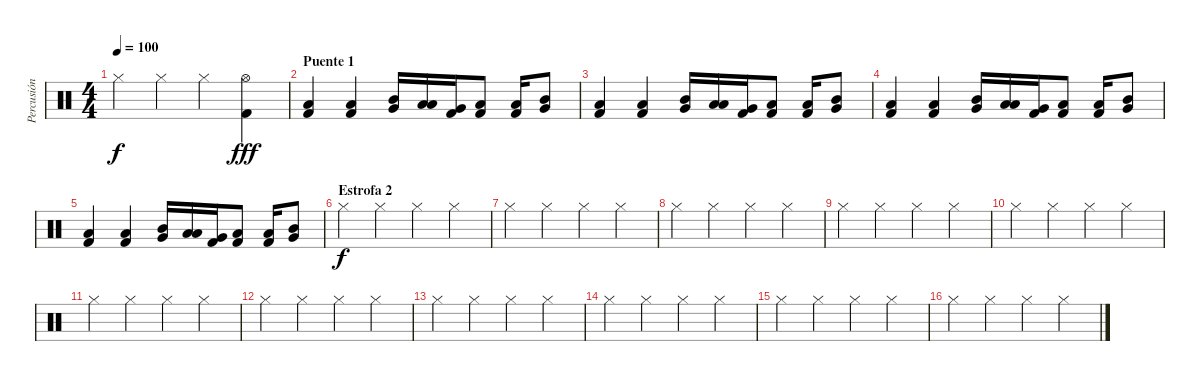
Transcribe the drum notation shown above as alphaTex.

\track ("Percusión" "Percusión") {instrument percussion}
\staff {score}
\articulation defaults
\ts (4 4)
\tempo 100
\clef neutral
\ks c "Hi-Hat (closed)".4{dy f} "Hi-Hat (closed)".4 "Hi-Hat (closed)".4
("Hi-Hat (open)" "Kick (hit) 2").4{dy fff} |
\section ("" "Puente 1")
("Kick (hit) 2" "Low Floor Tom (hit)").4 ("Kick (hit) 2" "Low Floor Tom (hit)").4 ("Mid Tom (hit)" "Very Low Tom (hit)").16{bd 480} ("Low Tom (hit)" "Low Floor Tom (hit)").16{bd 480} ("Very Low Tom (hit)" "Kick (hit) 2").16{bd 480} ("Kick (hit) 2" "Low Floor Tom (hit)").8 ("Kick (hit) 2" "Low Floor Tom (hit)").16 ("Mid Tom (hit)" "Very Low Tom (hit)").8 |
("Kick (hit) 2" "Low Floor Tom (hit)").4 ("Kick (hit) 2" "Low Floor Tom (hit)").4 ("Mid Tom (hit)" "Very Low Tom (hit)").16{bd 480} ("Low Tom (hit)" "Low Floor Tom (hit)").16{bd 480} ("Very Low Tom (hit)" "Kick (hit) 2").16{bd 480} ("Kick (hit) 2" "Low Floor Tom (hit)").8 ("Kick (hit) 2" "Low Floor Tom (hit)").16 ("Mid Tom (hit)" "Very Low Tom (hit)").8 |
("Kick (hit) 2" "Low Floor Tom (hit)").4 ("Kick (hit) 2" "Low Floor Tom (hit)").4 ("Mid Tom (hit)" "Very Low Tom (hit)").16{bd 480} ("Low Tom (hit)" "Low Floor Tom (hit)").16{bd 480} ("Very Low Tom (hit)" "Kick (hit) 2").16{bd 480} ("Kick (hit) 2" "Low Floor Tom (hit)").8 ("Kick (hit) 2" "Low Floor Tom (hit)").16 ("Mid Tom (hit)" "Very Low Tom (hit)").8 |
("Kick (hit) 2" "Low Floor Tom (hit)").4 ("Kick (hit) 2" "Low Floor Tom (hit)").4 ("Mid Tom (hit)" "Very Low Tom (hit)").16{bd 480} ("Low Tom (hit)" "Low Floor Tom (hit)").16{bd 480} ("Very Low Tom (hit)" "Kick (hit) 2").16{bd 480} ("Kick (hit) 2" "Low Floor Tom (hit)").8 ("Kick (hit) 2" "Low Floor Tom (hit)").16 ("Mid Tom (hit)" "Very Low Tom (hit)").8 |
\section ("" "Estrofa 2")
"Hi-Hat (closed)".4{dy f} "Hi-Hat (closed)".4 "Hi-Hat (closed)".4 "Hi-Hat (closed)".4 |
"Hi-Hat (closed)".4 "Hi-Hat (closed)".4 "Hi-Hat (closed)".4 "Hi-Hat (closed)".4 |
"Hi-Hat (closed)".4 "Hi-Hat (closed)".4 "Hi-Hat (closed)".4 "Hi-Hat (closed)".4 |
"Hi-Hat (closed)".4 "Hi-Hat (closed)".4 "Hi-Hat (closed)".4 "Hi-Hat (closed)".4 |
"Hi-Hat (closed)".4 "Hi-Hat (closed)".4 "Hi-Hat (closed)".4 "Hi-Hat (closed)".4 |
"Hi-Hat (closed)".4 "Hi-Hat (closed)".4 "Hi-Hat (closed)".4 "Hi-Hat (closed)".4 |
"Hi-Hat (closed)".4 "Hi-Hat (closed)".4 "Hi-Hat (closed)".4 "Hi-Hat (closed)".4 |
"Hi-Hat (closed)".4 "Hi-Hat (closed)".4 "Hi-Hat (closed)".4 "Hi-Hat (closed)".4 |
"Hi-Hat (closed)".4 "Hi-Hat (closed)".4 "Hi-Hat (closed)".4 "Hi-Hat (closed)".4 |
"Hi-Hat (closed)".4 "Hi-Hat (closed)".4 "Hi-Hat (closed)".4 "Hi-Hat (closed)".4 |
"Hi-Hat (closed)".4 "Hi-Hat (closed)".4 "Hi-Hat (closed)".4 "Hi-Hat (closed)".4
